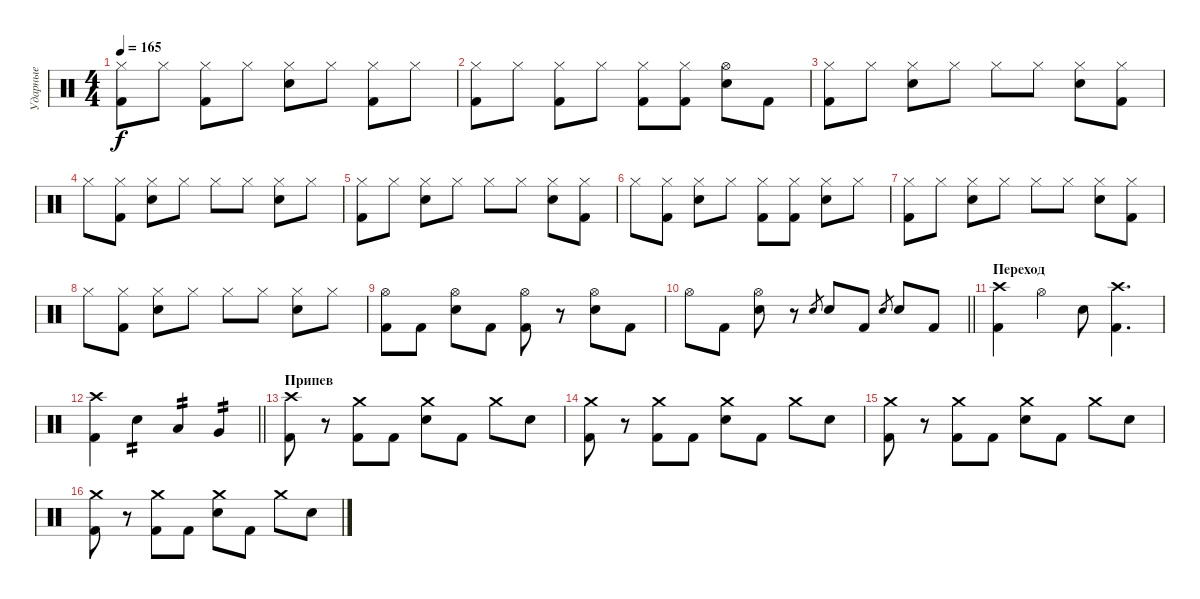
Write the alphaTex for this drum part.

\track ("Ударные" "Ударные") {instrument percussion}
\staff {score}
\articulation defaults
\ts (4 4)
\tempo 165
\clef neutral
\ks c
("Hi-Hat (closed)" "Kick (hit) 2").8{dy f} "Hi-Hat (closed)".8 ("Hi-Hat (closed)" "Kick (hit) 2").8 "Hi-Hat (closed)".8 ("Hi-Hat (closed)" "Electric Snare (hit)").8 "Hi-Hat (closed)".8 ("Hi-Hat (closed)" "Kick (hit) 2").8 "Hi-Hat (closed)".8 |
("Hi-Hat (closed)" "Kick (hit) 2").8 "Hi-Hat (closed)".8 ("Hi-Hat (closed)" "Kick (hit) 2").8 "Hi-Hat (closed)".8 ("Hi-Hat (closed)" "Kick (hit) 2").8 ("Hi-Hat (closed)" "Kick (hit) 2").8 ("Hi-Hat (open)" "Electric Snare (hit)").8 "Kick (hit) 2".8 |
("Hi-Hat (closed)" "Kick (hit) 2").8 "Hi-Hat (closed)".8 ("Hi-Hat (closed)" "Electric Snare (hit)").8 "Hi-Hat (closed)".8 "Hi-Hat (closed)".8 "Hi-Hat (closed)".8 ("Hi-Hat (closed)" "Electric Snare (hit)").8 ("Hi-Hat (closed)" "Kick (hit) 2").8 |
"Hi-Hat (closed)".8 ("Hi-Hat (closed)" "Kick (hit) 2").8 ("Hi-Hat (closed)" "Electric Snare (hit)").8 "Hi-Hat (closed)".8 "Hi-Hat (closed)".8 "Hi-Hat (closed)".8 ("Hi-Hat (closed)" "Electric Snare (hit)").8 "Hi-Hat (closed)".8 |
("Hi-Hat (closed)" "Kick (hit) 2").8 "Hi-Hat (closed)".8 ("Hi-Hat (closed)" "Electric Snare (hit)").8 "Hi-Hat (closed)".8 "Hi-Hat (closed)".8 "Hi-Hat (closed)".8 ("Hi-Hat (closed)" "Electric Snare (hit)").8 ("Hi-Hat (closed)" "Kick (hit) 2").8 |
"Hi-Hat (closed)".8 ("Hi-Hat (closed)" "Kick (hit) 2").8 ("Hi-Hat (closed)" "Electric Snare (hit)").8 "Hi-Hat (closed)".8 ("Hi-Hat (closed)" "Kick (hit) 2").8 ("Hi-Hat (closed)" "Kick (hit) 2").8 ("Hi-Hat (closed)" "Electric Snare (hit)").8 "Hi-Hat (closed)".8 |
("Hi-Hat (closed)" "Kick (hit) 2").8 "Hi-Hat (closed)".8 ("Hi-Hat (closed)" "Electric Snare (hit)").8 "Hi-Hat (closed)".8 "Hi-Hat (closed)".8 "Hi-Hat (closed)".8 ("Hi-Hat (closed)" "Electric Snare (hit)").8 ("Hi-Hat (closed)" "Kick (hit) 2").8 |
"Hi-Hat (closed)".8 ("Hi-Hat (closed)" "Kick (hit) 2").8 ("Hi-Hat (closed)" "Electric Snare (hit)").8 "Hi-Hat (closed)".8 "Hi-Hat (closed)".8 "Hi-Hat (closed)".8 ("Hi-Hat (closed)" "Electric Snare (hit)").8 "Hi-Hat (closed)".8 |
("Hi-Hat (open)" "Kick (hit) 2").8 "Kick (hit) 2".8 ("Hi-Hat (open)" "Electric Snare (hit)").8 "Kick (hit) 2".8 ("Hi-Hat (open)" "Kick (hit) 2").8 r.8 ("Hi-Hat (open)" "Electric Snare (hit)").8 "Kick (hit) 2".8 |
\barLineRight lightlight "Hi-Hat (open)".8 "Kick (hit) 2".8
("Hi-Hat (open)" "Electric Snare (hit)").8 r.8 "Electric Snare (hit)".8{gr} "Electric Snare (hit)".8 "Kick (hit) 2".8 "Electric Snare (hit)".8{gr} "Electric Snare (hit)".8 "Kick (hit) 2".8 |
\section ("" "Переход")
("Crash high (hit)" "Kick (hit) 2").4 "Hi-Hat (open)".4 "Electric Snare (hit)".8 ("Crash high (hit)" "Kick (hit) 2").4{d} |
\barLineRight lightlight
("Crash high (hit)" "Kick (hit) 2").4 "Electric Snare (hit)".4{tp 2} "Low Tom (hit)".4{tp 2} "Very Low Tom (hit)".4{tp 2} |
\section ("" "Припев")
("Crash high (hit)" "Kick (hit) 2").8 r.8 ("Crash medium (hit)" "Kick (hit) 2").8 "Kick (hit) 2".8 ("Crash medium (hit)" "Electric Snare (hit)").8 "Kick (hit) 2".8 "Crash medium (hit)".8 "Electric Snare (hit)".8 |
("Crash medium (hit)" "Kick (hit) 2").8 r.8 ("Crash medium (hit)" "Kick (hit) 2").8 "Kick (hit) 2".8 ("Crash medium (hit)" "Electric Snare (hit)").8 "Kick (hit) 2".8 "Crash medium (hit)".8 "Electric Snare (hit)".8 |
("Crash medium (hit)" "Kick (hit) 2").8 r.8 ("Crash medium (hit)" "Kick (hit) 2").8 "Kick (hit) 2".8 ("Crash medium (hit)" "Electric Snare (hit)").8 "Kick (hit) 2".8 "Crash medium (hit)".8 "Electric Snare (hit)".8 |
("Crash medium (hit)" "Kick (hit) 2").8 r.8 ("Crash medium (hit)" "Kick (hit) 2").8 "Kick (hit) 2".8 ("Crash medium (hit)" "Electric Snare (hit)").8 "Kick (hit) 2".8 "Crash medium (hit)".8 "Electric Snare (hit)".8
